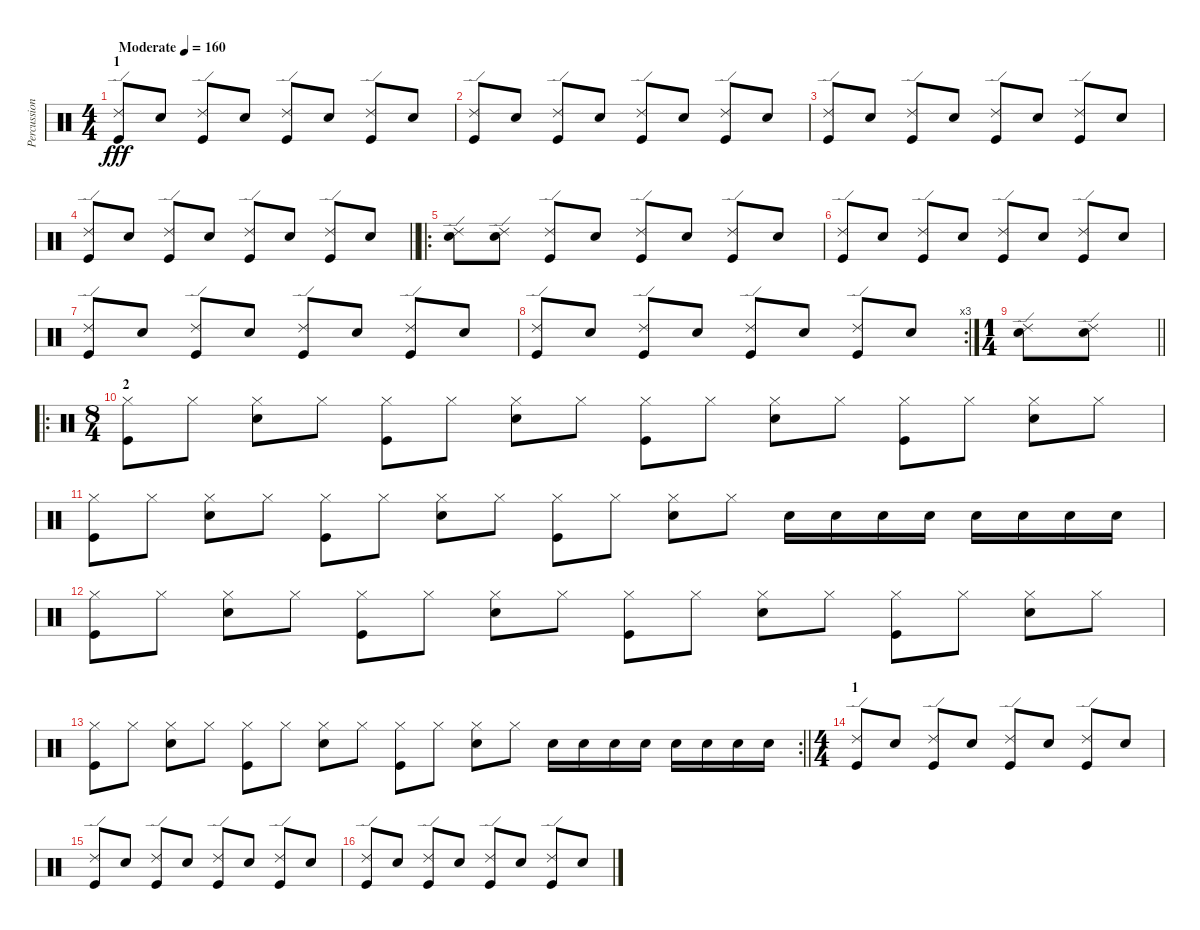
\track ("Percussion" "Percussion") {instrument percussion}
\staff {score}
\articulation defaults
\ts (4 4)
\section ("" "1")
\tempo (160 "Moderate")
\clef neutral
\ks c
("Ride (edge) 2" "Kick (hit)").8{dy fff} "Snare (hit) 2".8 ("Ride (edge) 2" "Kick (hit)").8 "Snare (hit) 2".8 ("Ride (edge) 2" "Kick (hit)").8 "Snare (hit) 2".8 ("Ride (edge) 2" "Kick (hit)").8 "Snare (hit) 2".8 |
("Ride (edge) 2" "Kick (hit)").8 "Snare (hit) 2".8 ("Ride (edge) 2" "Kick (hit)").8 "Snare (hit) 2".8 ("Ride (edge) 2" "Kick (hit)").8 "Snare (hit) 2".8 ("Ride (edge) 2" "Kick (hit)").8 "Snare (hit) 2".8 |
("Ride (edge) 2" "Kick (hit)").8 "Snare (hit) 2".8 ("Ride (edge) 2" "Kick (hit)").8 "Snare (hit) 2".8 ("Ride (edge) 2" "Kick (hit)").8 "Snare (hit) 2".8 ("Ride (edge) 2" "Kick (hit)").8 "Snare (hit) 2".8 |
\barLineRight lightlight
("Ride (edge) 2" "Kick (hit)").8 "Snare (hit) 2".8 ("Ride (edge) 2" "Kick (hit)").8 "Snare (hit) 2".8 ("Ride (edge) 2" "Kick (hit)").8 "Snare (hit) 2".8 ("Ride (edge) 2" "Kick (hit)").8 "Snare (hit) 2".8 |
\ro
("Ride (edge) 2" "Snare (hit) 2").8 ("Ride (edge) 2" "Snare (hit) 2").8 ("Ride (edge) 2" "Kick (hit)").8 "Snare (hit) 2".8 ("Ride (edge) 2" "Kick (hit)").8 "Snare (hit) 2".8 ("Ride (edge) 2" "Kick (hit)").8 "Snare (hit) 2".8 |
("Ride (edge) 2" "Kick (hit)").8 "Snare (hit) 2".8 ("Ride (edge) 2" "Kick (hit)").8 "Snare (hit) 2".8 ("Ride (edge) 2" "Kick (hit)").8 "Snare (hit) 2".8 ("Ride (edge) 2" "Kick (hit)").8 "Snare (hit) 2".8 |
("Ride (edge) 2" "Kick (hit)").8 "Snare (hit) 2".8 ("Ride (edge) 2" "Kick (hit)").8 "Snare (hit) 2".8 ("Ride (edge) 2" "Kick (hit)").8 "Snare (hit) 2".8 ("Ride (edge) 2" "Kick (hit)").8 "Snare (hit) 2".8 |
\rc 3
("Ride (edge) 2" "Kick (hit)").8 "Snare (hit) 2".8 ("Ride (edge) 2" "Kick (hit)").8 "Snare (hit) 2".8 ("Ride (edge) 2" "Kick (hit)").8 "Snare (hit) 2".8 ("Ride (edge) 2" "Kick (hit)").8 "Snare (hit) 2".8 |
\ts (1 4)
\barLineRight lightlight
("Ride (edge) 2" "Snare (hit) 2").8 ("Ride (edge) 2" "Snare (hit) 2").8 |
\ro
\ts (8 4)
\section ("" "2")
("Hi-Hat (closed)" "Kick (hit)").8 "Hi-Hat (closed)".8 ("Hi-Hat (closed)" "Snare (hit) 2").8 "Hi-Hat (closed)".8 ("Hi-Hat (closed)" "Kick (hit)").8 "Hi-Hat (closed)".8 ("Hi-Hat (closed)" "Snare (hit) 2").8 "Hi-Hat (closed)".8 ("Hi-Hat (closed)" "Kick (hit)").8 "Hi-Hat (closed)".8 ("Hi-Hat (closed)" "Snare (hit) 2").8 "Hi-Hat (closed)".8 ("Hi-Hat (closed)" "Kick (hit)").8 "Hi-Hat (closed)".8 ("Hi-Hat (closed)" "Snare (hit) 2").8 "Hi-Hat (closed)".8 |
("Hi-Hat (closed)" "Kick (hit)").8 "Hi-Hat (closed)".8 ("Hi-Hat (closed)" "Snare (hit) 2").8 "Hi-Hat (closed)".8 ("Hi-Hat (closed)" "Kick (hit)").8 "Hi-Hat (closed)".8 ("Hi-Hat (closed)" "Snare (hit) 2").8 "Hi-Hat (closed)".8 ("Hi-Hat (closed)" "Kick (hit)").8 "Hi-Hat (closed)".8 ("Hi-Hat (closed)" "Snare (hit) 2").8 "Hi-Hat (closed)".8 "Snare (hit) 2".16 "Snare (hit) 2".16 "Snare (hit) 2".16 "Snare (hit) 2".16 "Snare (hit) 2".16 "Snare (hit) 2".16 "Snare (hit) 2".16 "Snare (hit) 2".16 |
("Hi-Hat (closed)" "Kick (hit)").8 "Hi-Hat (closed)".8 ("Hi-Hat (closed)" "Snare (hit) 2").8 "Hi-Hat (closed)".8 ("Hi-Hat (closed)" "Kick (hit)").8 "Hi-Hat (closed)".8 ("Hi-Hat (closed)" "Snare (hit) 2").8 "Hi-Hat (closed)".8 ("Hi-Hat (closed)" "Kick (hit)").8 "Hi-Hat (closed)".8 ("Hi-Hat (closed)" "Snare (hit) 2").8 "Hi-Hat (closed)".8 ("Hi-Hat (closed)" "Kick (hit)").8 "Hi-Hat (closed)".8 ("Hi-Hat (closed)" "Snare (hit) 2").8 "Hi-Hat (closed)".8 |
\rc 2
\barLineRight lightlight
("Hi-Hat (closed)" "Kick (hit)").8 "Hi-Hat (closed)".8 ("Hi-Hat (closed)" "Snare (hit) 2").8 "Hi-Hat (closed)".8 ("Hi-Hat (closed)" "Kick (hit)").8 "Hi-Hat (closed)".8 ("Hi-Hat (closed)" "Snare (hit) 2").8 "Hi-Hat (closed)".8 ("Hi-Hat (closed)" "Kick (hit)").8 "Hi-Hat (closed)".8 ("Hi-Hat (closed)" "Snare (hit) 2").8 "Hi-Hat (closed)".8 "Snare (hit) 2".16 "Snare (hit) 2".16 "Snare (hit) 2".16 "Snare (hit) 2".16 "Snare (hit) 2".16 "Snare (hit) 2".16 "Snare (hit) 2".16 "Snare (hit) 2".16 |
\ts (4 4)
\section ("" "1")
("Ride (edge) 2" "Kick (hit)").8 "Snare (hit) 2".8 ("Ride (edge) 2" "Kick (hit)").8 "Snare (hit) 2".8 ("Ride (edge) 2" "Kick (hit)").8 "Snare (hit) 2".8 ("Ride (edge) 2" "Kick (hit)").8 "Snare (hit) 2".8 |
("Ride (edge) 2" "Kick (hit)").8 "Snare (hit) 2".8 ("Ride (edge) 2" "Kick (hit)").8 "Snare (hit) 2".8 ("Ride (edge) 2" "Kick (hit)").8 "Snare (hit) 2".8 ("Ride (edge) 2" "Kick (hit)").8 "Snare (hit) 2".8 |
("Ride (edge) 2" "Kick (hit)").8 "Snare (hit) 2".8 ("Ride (edge) 2" "Kick (hit)").8 "Snare (hit) 2".8 ("Ride (edge) 2" "Kick (hit)").8 "Snare (hit) 2".8 ("Ride (edge) 2" "Kick (hit)").8 "Snare (hit) 2".8
